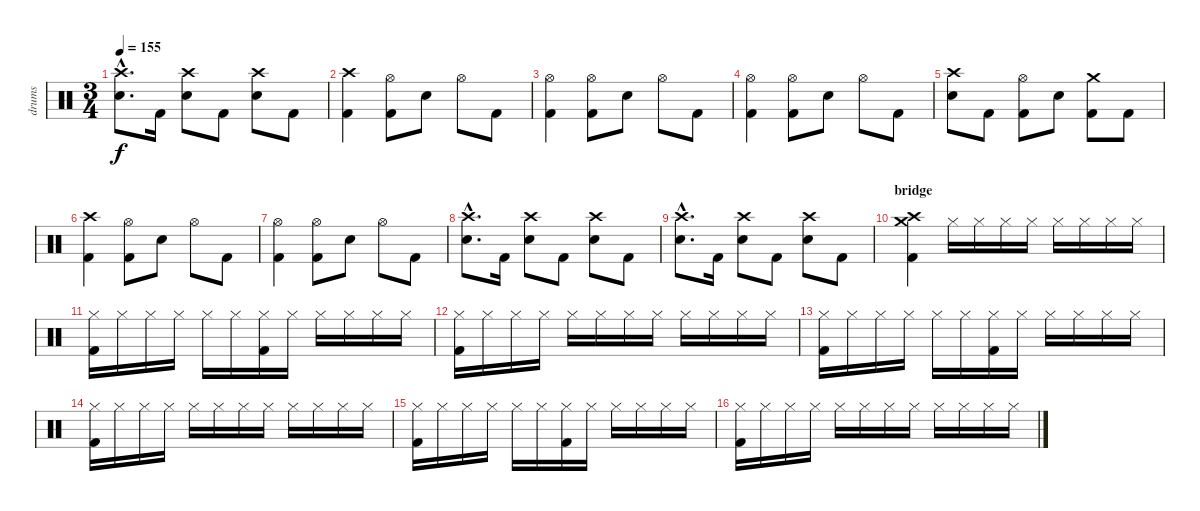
\track ("drums" "drums") {instrument percussion}
\staff {score}
\articulation defaults
\ts (3 4)
\tempo 155
\clef neutral
\ks c
("Crash high (hit)"{hac} "Electric Snare (hit)"{hac}).8{d dy f} "Kick (hit) 2".16 ("Crash high (hit)" "Electric Snare (hit)").8 "Kick (hit) 2".8 ("Crash high (hit)" "Electric Snare (hit)").8 "Kick (hit) 2".8 |
("Crash high (hit)" "Kick (hit) 2").4 ("Hi-Hat (open)" "Kick (hit) 2").8 "Electric Snare (hit)".8 "Hi-Hat (open)".8 "Kick (hit) 2".8 |
("Hi-Hat (open)" "Kick (hit) 2").4 ("Hi-Hat (open)" "Kick (hit) 2").8 "Electric Snare (hit)".8 "Hi-Hat (open)".8 "Kick (hit) 2".8 |
("Hi-Hat (open)" "Kick (hit) 2").4 ("Hi-Hat (open)" "Kick (hit) 2").8 "Electric Snare (hit)".8 "Hi-Hat (open)".8 "Kick (hit) 2".8 |
("Crash high (hit)" "Electric Snare (hit)").8 "Kick (hit) 2".8 ("Hi-Hat (open)" "Kick (hit) 2").8 "Electric Snare (hit)".8 ("Crash medium (hit)" "Kick (hit) 2").8 "Kick (hit) 2".8 |
("Crash high (hit)" "Kick (hit) 2").4 ("Hi-Hat (open)" "Kick (hit) 2").8 "Electric Snare (hit)".8 "Hi-Hat (open)".8 "Kick (hit) 2".8 |
("Hi-Hat (open)" "Kick (hit) 2").4 ("Hi-Hat (open)" "Kick (hit) 2").8 "Electric Snare (hit)".8 "Hi-Hat (open)".8 "Kick (hit) 2".8 |
("Crash high (hit)"{hac} "Electric Snare (hit)"{hac}).8{d} "Kick (hit) 2".16 ("Crash high (hit)" "Electric Snare (hit)").8 "Kick (hit) 2".8 ("Crash high (hit)" "Electric Snare (hit)").8 "Kick (hit) 2".8 |
("Crash high (hit)"{hac} "Electric Snare (hit)"{hac}).8{d} "Kick (hit) 2".16 ("Crash high (hit)" "Electric Snare (hit)").8 "Kick (hit) 2".8 ("Crash high (hit)" "Electric Snare (hit)").8 "Kick (hit) 2".8 |
\section ("" "bridge")
("Crash high (hit)" "Crash medium (hit)" "Kick (hit) 2").4 "Hi-Hat (closed)".16 "Hi-Hat (closed)".16 "Hi-Hat (closed)".16 "Hi-Hat (closed)".16 "Hi-Hat (closed)".16 "Hi-Hat (closed)".16 "Hi-Hat (closed)".16 "Hi-Hat (closed)".16 |
("Hi-Hat (closed)" "Kick (hit) 2").16 "Hi-Hat (closed)".16 "Hi-Hat (closed)".16 "Hi-Hat (closed)".16 "Hi-Hat (closed)".16 "Hi-Hat (closed)".16 ("Hi-Hat (closed)" "Kick (hit) 2").16 "Hi-Hat (closed)".16 "Hi-Hat (closed)".16 "Hi-Hat (closed)".16 "Hi-Hat (closed)".16 "Hi-Hat (closed)".16 |
("Hi-Hat (closed)" "Kick (hit) 2").16 "Hi-Hat (closed)".16 "Hi-Hat (closed)".16 "Hi-Hat (closed)".16 "Hi-Hat (closed)".16 "Hi-Hat (closed)".16 "Hi-Hat (closed)".16 "Hi-Hat (closed)".16 "Hi-Hat (closed)".16 "Hi-Hat (closed)".16 "Hi-Hat (closed)".16 "Hi-Hat (closed)".16 |
("Hi-Hat (closed)" "Kick (hit) 2").16 "Hi-Hat (closed)".16 "Hi-Hat (closed)".16 "Hi-Hat (closed)".16 "Hi-Hat (closed)".16 "Hi-Hat (closed)".16 ("Hi-Hat (closed)" "Kick (hit) 2").16 "Hi-Hat (closed)".16 "Hi-Hat (closed)".16 "Hi-Hat (closed)".16 "Hi-Hat (closed)".16 "Hi-Hat (closed)".16 |
("Hi-Hat (closed)" "Kick (hit) 2").16 "Hi-Hat (closed)".16 "Hi-Hat (closed)".16 "Hi-Hat (closed)".16 "Hi-Hat (closed)".16 "Hi-Hat (closed)".16 "Hi-Hat (closed)".16 "Hi-Hat (closed)".16 "Hi-Hat (closed)".16 "Hi-Hat (closed)".16 "Hi-Hat (closed)".16 "Hi-Hat (closed)".16 |
("Hi-Hat (closed)" "Kick (hit) 2").16 "Hi-Hat (closed)".16 "Hi-Hat (closed)".16 "Hi-Hat (closed)".16 "Hi-Hat (closed)".16 "Hi-Hat (closed)".16 ("Hi-Hat (closed)" "Kick (hit) 2").16 "Hi-Hat (closed)".16 "Hi-Hat (closed)".16 "Hi-Hat (closed)".16 "Hi-Hat (closed)".16 "Hi-Hat (closed)".16 |
("Hi-Hat (closed)" "Kick (hit) 2").16 "Hi-Hat (closed)".16 "Hi-Hat (closed)".16 "Hi-Hat (closed)".16 "Hi-Hat (closed)".16 "Hi-Hat (closed)".16 "Hi-Hat (closed)".16 "Hi-Hat (closed)".16 "Hi-Hat (closed)".16 "Hi-Hat (closed)".16 "Hi-Hat (closed)".16 "Hi-Hat (closed)".16
